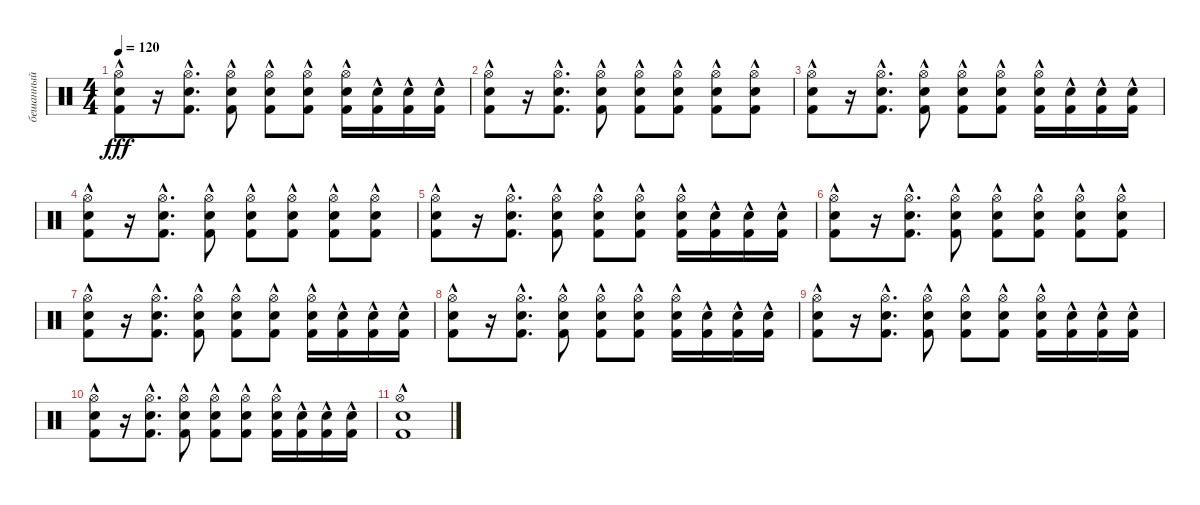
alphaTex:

\track ("бешанный" "бешанный") {instrument percussion}
\staff {score}
\articulation defaults
\ts (4 4)
\tempo 120
\clef neutral
\ks c
("Kick (hit) 2"{hac} "Snare (hit) 2"{hac} "Hi-Hat (open)"{hac}).8{dy fff} r.16 ("Kick (hit) 2"{hac} "Snare (hit) 2"{hac} "Hi-Hat (open)"{hac}).8{d} ("Kick (hit) 2"{hac} "Snare (hit) 2"{hac} "Hi-Hat (open)"{hac}).8 ("Kick (hit) 2"{hac} "Snare (hit) 2"{hac} "Hi-Hat (open)"{hac}).8 ("Kick (hit) 2"{hac} "Snare (hit) 2"{hac} "Hi-Hat (open)"{hac}).8 ("Kick (hit) 2"{hac} "Snare (hit) 2"{hac} "Hi-Hat (open)"{hac}).16 ("Kick (hit) 2"{hac} "Snare (hit) 2"{hac}).16 ("Kick (hit) 2"{hac} "Snare (hit) 2"{hac}).16 ("Kick (hit) 2"{hac} "Snare (hit) 2"{hac}).16 |
("Kick (hit) 2"{hac} "Snare (hit) 2"{hac} "Hi-Hat (open)"{hac}).8 r.16 ("Kick (hit) 2"{hac} "Snare (hit) 2"{hac} "Hi-Hat (open)"{hac}).8{d} ("Kick (hit) 2"{hac} "Snare (hit) 2"{hac} "Hi-Hat (open)"{hac}).8 ("Kick (hit) 2"{hac} "Snare (hit) 2"{hac} "Hi-Hat (open)"{hac}).8 ("Kick (hit) 2"{hac} "Snare (hit) 2"{hac} "Hi-Hat (open)"{hac}).8 ("Kick (hit) 2"{hac} "Snare (hit) 2"{hac} "Hi-Hat (open)"{hac}).8 ("Kick (hit) 2"{hac} "Snare (hit) 2"{hac} "Hi-Hat (open)"{hac}).8 |
("Kick (hit) 2"{hac} "Snare (hit) 2"{hac} "Hi-Hat (open)"{hac}).8 r.16 ("Kick (hit) 2"{hac} "Snare (hit) 2"{hac} "Hi-Hat (open)"{hac}).8{d} ("Kick (hit) 2"{hac} "Snare (hit) 2"{hac} "Hi-Hat (open)"{hac}).8 ("Kick (hit) 2"{hac} "Snare (hit) 2"{hac} "Hi-Hat (open)"{hac}).8 ("Kick (hit) 2"{hac} "Snare (hit) 2"{hac} "Hi-Hat (open)"{hac}).8 ("Kick (hit) 2"{hac} "Snare (hit) 2"{hac} "Hi-Hat (open)"{hac}).16 ("Kick (hit) 2"{hac} "Snare (hit) 2"{hac}).16 ("Kick (hit) 2"{hac} "Snare (hit) 2"{hac}).16 ("Kick (hit) 2"{hac} "Snare (hit) 2"{hac}).16 |
("Kick (hit) 2"{hac} "Snare (hit) 2"{hac} "Hi-Hat (open)"{hac}).8 r.16 ("Kick (hit) 2"{hac} "Snare (hit) 2"{hac} "Hi-Hat (open)"{hac}).8{d} ("Kick (hit) 2"{hac} "Snare (hit) 2"{hac} "Hi-Hat (open)"{hac}).8 ("Kick (hit) 2"{hac} "Snare (hit) 2"{hac} "Hi-Hat (open)"{hac}).8 ("Kick (hit) 2"{hac} "Snare (hit) 2"{hac} "Hi-Hat (open)"{hac}).8 ("Kick (hit) 2"{hac} "Snare (hit) 2"{hac} "Hi-Hat (open)"{hac}).8 ("Kick (hit) 2"{hac} "Snare (hit) 2"{hac} "Hi-Hat (open)"{hac}).8 |
("Kick (hit) 2"{hac} "Snare (hit) 2"{hac} "Hi-Hat (open)"{hac}).8 r.16 ("Kick (hit) 2"{hac} "Snare (hit) 2"{hac} "Hi-Hat (open)"{hac}).8{d} ("Kick (hit) 2"{hac} "Snare (hit) 2"{hac} "Hi-Hat (open)"{hac}).8 ("Kick (hit) 2"{hac} "Snare (hit) 2"{hac} "Hi-Hat (open)"{hac}).8 ("Kick (hit) 2"{hac} "Snare (hit) 2"{hac} "Hi-Hat (open)"{hac}).8 ("Kick (hit) 2"{hac} "Snare (hit) 2"{hac} "Hi-Hat (open)"{hac}).16 ("Kick (hit) 2"{hac} "Snare (hit) 2"{hac}).16 ("Kick (hit) 2"{hac} "Snare (hit) 2"{hac}).16 ("Kick (hit) 2"{hac} "Snare (hit) 2"{hac}).16 |
("Kick (hit) 2"{hac} "Snare (hit) 2"{hac} "Hi-Hat (open)"{hac}).8 r.16 ("Kick (hit) 2"{hac} "Snare (hit) 2"{hac} "Hi-Hat (open)"{hac}).8{d} ("Kick (hit) 2"{hac} "Snare (hit) 2"{hac} "Hi-Hat (open)"{hac}).8 ("Kick (hit) 2"{hac} "Snare (hit) 2"{hac} "Hi-Hat (open)"{hac}).8 ("Kick (hit) 2"{hac} "Snare (hit) 2"{hac} "Hi-Hat (open)"{hac}).8 ("Kick (hit) 2"{hac} "Snare (hit) 2"{hac} "Hi-Hat (open)"{hac}).8 ("Kick (hit) 2"{hac} "Snare (hit) 2"{hac} "Hi-Hat (open)"{hac}).8 |
("Kick (hit) 2"{hac} "Snare (hit) 2"{hac} "Hi-Hat (open)"{hac}).8 r.16 ("Kick (hit) 2"{hac} "Snare (hit) 2"{hac} "Hi-Hat (open)"{hac}).8{d} ("Kick (hit) 2"{hac} "Snare (hit) 2"{hac} "Hi-Hat (open)"{hac}).8 ("Kick (hit) 2"{hac} "Snare (hit) 2"{hac} "Hi-Hat (open)"{hac}).8 ("Kick (hit) 2"{hac} "Snare (hit) 2"{hac} "Hi-Hat (open)"{hac}).8 ("Kick (hit) 2"{hac} "Snare (hit) 2"{hac} "Hi-Hat (open)"{hac}).16 ("Kick (hit) 2"{hac} "Snare (hit) 2"{hac}).16 ("Kick (hit) 2"{hac} "Snare (hit) 2"{hac}).16 ("Kick (hit) 2"{hac} "Snare (hit) 2"{hac}).16 |
("Kick (hit) 2"{hac} "Snare (hit) 2"{hac} "Hi-Hat (open)"{hac}).8 r.16 ("Kick (hit) 2"{hac} "Snare (hit) 2"{hac} "Hi-Hat (open)"{hac}).8{d} ("Kick (hit) 2"{hac} "Snare (hit) 2"{hac} "Hi-Hat (open)"{hac}).8 ("Kick (hit) 2"{hac} "Snare (hit) 2"{hac} "Hi-Hat (open)"{hac}).8 ("Kick (hit) 2"{hac} "Snare (hit) 2"{hac} "Hi-Hat (open)"{hac}).8 ("Kick (hit) 2"{hac} "Snare (hit) 2"{hac} "Hi-Hat (open)"{hac}).16 ("Kick (hit) 2"{hac} "Snare (hit) 2"{hac}).16 ("Kick (hit) 2"{hac} "Snare (hit) 2"{hac}).16 ("Kick (hit) 2"{hac} "Snare (hit) 2"{hac}).16 |
("Kick (hit) 2"{hac} "Snare (hit) 2"{hac} "Hi-Hat (open)"{hac}).8 r.16 ("Kick (hit) 2"{hac} "Snare (hit) 2"{hac} "Hi-Hat (open)"{hac}).8{d} ("Kick (hit) 2"{hac} "Snare (hit) 2"{hac} "Hi-Hat (open)"{hac}).8 ("Kick (hit) 2"{hac} "Snare (hit) 2"{hac} "Hi-Hat (open)"{hac}).8 ("Kick (hit) 2"{hac} "Snare (hit) 2"{hac} "Hi-Hat (open)"{hac}).8 ("Kick (hit) 2"{hac} "Snare (hit) 2"{hac} "Hi-Hat (open)"{hac}).16 ("Kick (hit) 2"{hac} "Snare (hit) 2"{hac}).16 ("Kick (hit) 2"{hac} "Snare (hit) 2"{hac}).16 ("Kick (hit) 2"{hac} "Snare (hit) 2"{hac}).16 |
("Kick (hit) 2"{hac} "Snare (hit) 2"{hac} "Hi-Hat (open)"{hac}).8 r.16 ("Kick (hit) 2"{hac} "Snare (hit) 2"{hac} "Hi-Hat (open)"{hac}).8{d} ("Kick (hit) 2"{hac} "Snare (hit) 2"{hac} "Hi-Hat (open)"{hac}).8 ("Kick (hit) 2"{hac} "Snare (hit) 2"{hac} "Hi-Hat (open)"{hac}).8 ("Kick (hit) 2"{hac} "Snare (hit) 2"{hac} "Hi-Hat (open)"{hac}).8 ("Kick (hit) 2"{hac} "Snare (hit) 2"{hac} "Hi-Hat (open)"{hac}).16 ("Kick (hit) 2"{hac} "Snare (hit) 2"{hac}).16 ("Kick (hit) 2"{hac} "Snare (hit) 2"{hac}).16 ("Kick (hit) 2"{hac} "Snare (hit) 2"{hac}).16 |
("Kick (hit) 2"{hac} "Snare (hit) 2"{hac} "Hi-Hat (open)"{hac}).1
